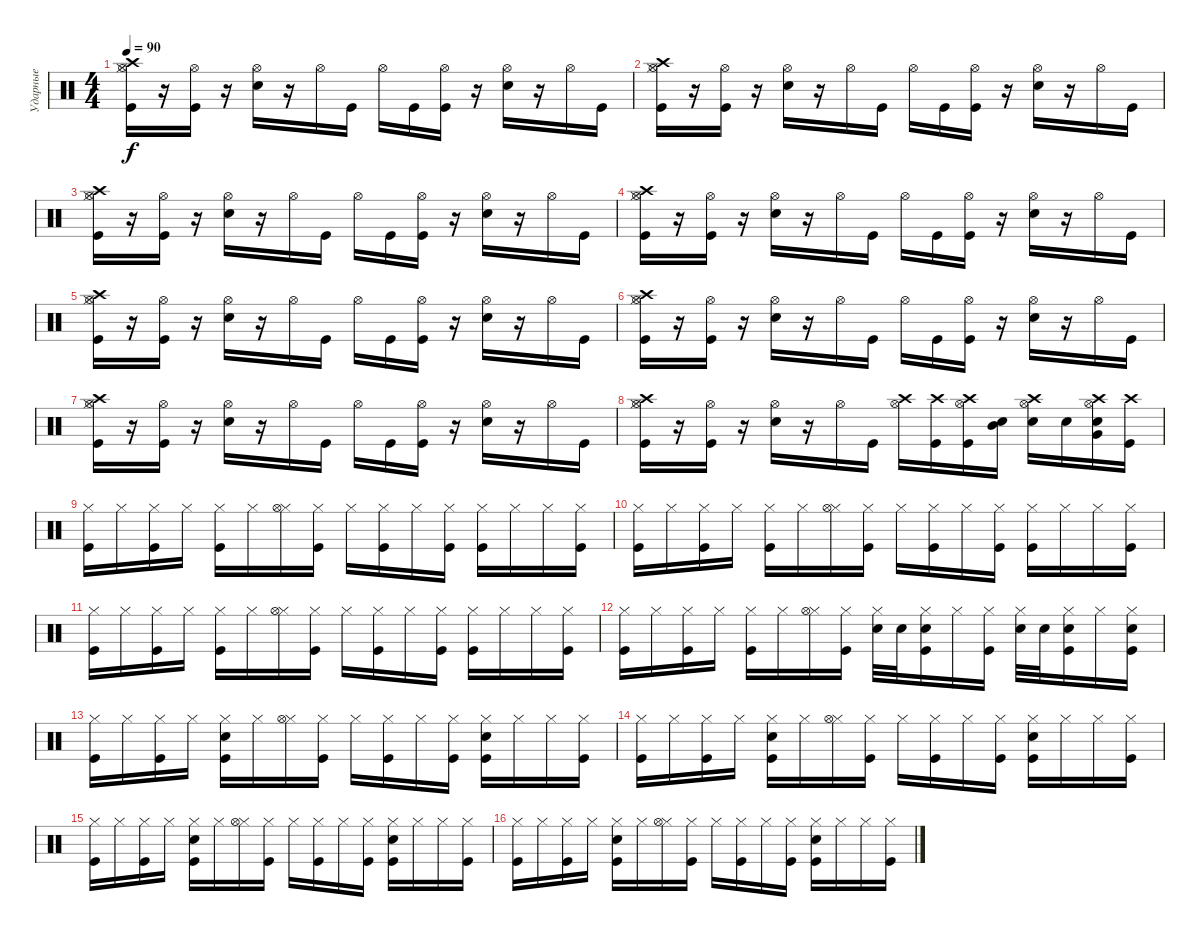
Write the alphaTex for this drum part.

\track ("Ударные" "Ударные") {instrument percussion}
\staff {score}
\articulation defaults
\ts (4 4)
\tempo 90
\clef neutral
\ks c
("Crash high (hit)" "Hi-Hat (closed)" "Hi-Hat (open)" "Kick (hit)").16{dy f} r.16 ("Kick (hit)" "Hi-Hat (open)").16 r.16 ("Snare (hit) 2" "Hi-Hat (open)").16 r.16 "Hi-Hat (open)".16 "Kick (hit)".16 "Hi-Hat (open)".16 "Kick (hit)".16 ("Kick (hit)" "Hi-Hat (open)").16 r.16 ("Snare (hit) 2" "Hi-Hat (open)").16 r.16 "Hi-Hat (open)".16 "Kick (hit)".16 |
("Crash high (hit)" "Hi-Hat (closed)" "Hi-Hat (open)" "Kick (hit)").16 r.16 ("Kick (hit)" "Hi-Hat (open)").16 r.16 ("Snare (hit) 2" "Hi-Hat (open)").16 r.16 "Hi-Hat (open)".16 "Kick (hit)".16 "Hi-Hat (open)".16 "Kick (hit)".16 ("Kick (hit)" "Hi-Hat (open)").16 r.16 ("Snare (hit) 2" "Hi-Hat (open)").16 r.16 "Hi-Hat (open)".16 "Kick (hit)".16 |
("Crash high (hit)" "Hi-Hat (closed)" "Hi-Hat (open)" "Kick (hit)").16 r.16 ("Kick (hit)" "Hi-Hat (open)").16 r.16 ("Snare (hit) 2" "Hi-Hat (open)").16 r.16 "Hi-Hat (open)".16 "Kick (hit)".16 "Hi-Hat (open)".16 "Kick (hit)".16 ("Kick (hit)" "Hi-Hat (open)").16 r.16 ("Snare (hit) 2" "Hi-Hat (open)").16 r.16 "Hi-Hat (open)".16 "Kick (hit)".16 |
("Crash high (hit)" "Hi-Hat (closed)" "Hi-Hat (open)" "Kick (hit)").16 r.16 ("Kick (hit)" "Hi-Hat (open)").16 r.16 ("Snare (hit) 2" "Hi-Hat (open)").16 r.16 "Hi-Hat (open)".16 "Kick (hit)".16 "Hi-Hat (open)".16 "Kick (hit)".16 ("Kick (hit)" "Hi-Hat (open)").16 r.16 ("Snare (hit) 2" "Hi-Hat (open)").16 r.16 "Hi-Hat (open)".16 "Kick (hit)".16 |
("Crash high (hit)" "Hi-Hat (closed)" "Hi-Hat (open)" "Kick (hit)").16 r.16 ("Kick (hit)" "Hi-Hat (open)").16 r.16 ("Snare (hit) 2" "Hi-Hat (open)").16 r.16 "Hi-Hat (open)".16 "Kick (hit)".16 "Hi-Hat (open)".16 "Kick (hit)".16 ("Kick (hit)" "Hi-Hat (open)").16 r.16 ("Snare (hit) 2" "Hi-Hat (open)").16 r.16 "Hi-Hat (open)".16 "Kick (hit)".16 |
("Crash high (hit)" "Hi-Hat (closed)" "Hi-Hat (open)" "Kick (hit)").16 r.16 ("Kick (hit)" "Hi-Hat (open)").16 r.16 ("Snare (hit) 2" "Hi-Hat (open)").16 r.16 "Hi-Hat (open)".16 "Kick (hit)".16 "Hi-Hat (open)".16 "Kick (hit)".16 ("Kick (hit)" "Hi-Hat (open)").16 r.16 ("Snare (hit) 2" "Hi-Hat (open)").16 r.16 "Hi-Hat (open)".16 "Kick (hit)".16 |
("Crash high (hit)" "Hi-Hat (closed)" "Hi-Hat (open)" "Kick (hit)").16 r.16 ("Kick (hit)" "Hi-Hat (open)").16 r.16 ("Snare (hit) 2" "Hi-Hat (open)").16 r.16 "Hi-Hat (open)".16 "Kick (hit)".16 "Hi-Hat (open)".16 "Kick (hit)".16 ("Kick (hit)" "Hi-Hat (open)").16 r.16 ("Snare (hit) 2" "Hi-Hat (open)").16 r.16 "Hi-Hat (open)".16 "Kick (hit)".16 |
("Crash high (hit)" "Hi-Hat (closed)" "Hi-Hat (open)" "Kick (hit)").16 r.16 ("Kick (hit)" "Hi-Hat (open)").16 r.16 ("Snare (hit) 2" "Hi-Hat (open)").16 r.16 "Hi-Hat (open)".16 "Kick (hit)".16 ("Crash high (hit)" "Hi-Hat (open)").16 ("Crash high (hit)" "Kick (hit)").16 ("Crash high (hit)" "Kick (hit)" "Hi-Hat (open)").16 ("Mid Tom (hit)" "Snare (hit) 2").16 ("Crash high (hit)" "Snare (hit) 2" "Hi-Hat (open)").16 "Snare (hit) 2".16 ("Crash high (hit)" "Hi-Hat (open)" "Snare (hit) 2" "Very Low Tom (hit)").16 ("Crash high (hit)" "Kick (hit)").16 |
("Hi-Hat (closed)" "Kick (hit)").16 "Hi-Hat (closed)".16 ("Hi-Hat (closed)" "Kick (hit)").16 "Hi-Hat (closed)".16 ("Hi-Hat (closed)" "Kick (hit)").16 "Hi-Hat (closed)".16 ("Hi-Hat (closed)" "Hi-Hat (open)").16 ("Hi-Hat (closed)" "Kick (hit)").16 "Hi-Hat (closed)".16 ("Hi-Hat (closed)" "Kick (hit)").16 "Hi-Hat (closed)".16 ("Hi-Hat (closed)" "Kick (hit)").16 ("Hi-Hat (closed)" "Kick (hit)").16 "Hi-Hat (closed)".16 "Hi-Hat (closed)".16 ("Hi-Hat (closed)" "Kick (hit)").16 |
("Hi-Hat (closed)" "Kick (hit)").16 "Hi-Hat (closed)".16 ("Hi-Hat (closed)" "Kick (hit)").16 "Hi-Hat (closed)".16 ("Hi-Hat (closed)" "Kick (hit)").16 "Hi-Hat (closed)".16 ("Hi-Hat (closed)" "Hi-Hat (open)").16 ("Hi-Hat (closed)" "Kick (hit)").16 "Hi-Hat (closed)".16 ("Hi-Hat (closed)" "Kick (hit)").16 "Hi-Hat (closed)".16 ("Hi-Hat (closed)" "Kick (hit)").16 ("Hi-Hat (closed)" "Kick (hit)").16 "Hi-Hat (closed)".16 "Hi-Hat (closed)".16 ("Hi-Hat (closed)" "Kick (hit)").16 |
("Hi-Hat (closed)" "Kick (hit)").16 "Hi-Hat (closed)".16 ("Hi-Hat (closed)" "Kick (hit)").16 "Hi-Hat (closed)".16 ("Hi-Hat (closed)" "Kick (hit)").16 "Hi-Hat (closed)".16 ("Hi-Hat (closed)" "Hi-Hat (open)").16 ("Hi-Hat (closed)" "Kick (hit)").16 "Hi-Hat (closed)".16 ("Hi-Hat (closed)" "Kick (hit)").16 "Hi-Hat (closed)".16 ("Hi-Hat (closed)" "Kick (hit)").16 ("Hi-Hat (closed)" "Kick (hit)").16 "Hi-Hat (closed)".16 "Hi-Hat (closed)".16 ("Hi-Hat (closed)" "Kick (hit)").16 |
("Hi-Hat (closed)" "Kick (hit)").16 "Hi-Hat (closed)".16 ("Hi-Hat (closed)" "Kick (hit)").16 "Hi-Hat (closed)".16 ("Hi-Hat (closed)" "Kick (hit)").16 "Hi-Hat (closed)".16 ("Hi-Hat (closed)" "Hi-Hat (open)").16 ("Hi-Hat (closed)" "Kick (hit)").16 ("Hi-Hat (closed)" "Snare (hit) 2").32 "Snare (hit) 2".32 ("Hi-Hat (closed)" "Kick (hit)" "Snare (hit) 2").16 "Hi-Hat (closed)".16 ("Hi-Hat (closed)" "Kick (hit)").16 ("Hi-Hat (closed)" "Snare (hit) 2").32 "Snare (hit) 2".32 ("Hi-Hat (closed)" "Kick (hit)" "Snare (hit) 2").16 "Hi-Hat (closed)".16 ("Hi-Hat (closed)" "Kick (hit)" "Snare (hit) 2").16 |
("Hi-Hat (closed)" "Kick (hit)").16 "Hi-Hat (closed)".16 ("Hi-Hat (closed)" "Kick (hit)").16 "Hi-Hat (closed)".16 ("Hi-Hat (closed)" "Kick (hit)" "Snare (hit) 2").16 "Hi-Hat (closed)".16 ("Hi-Hat (closed)" "Hi-Hat (open)").16 ("Hi-Hat (closed)" "Kick (hit)").16 "Hi-Hat (closed)".16 ("Hi-Hat (closed)" "Kick (hit)").16 "Hi-Hat (closed)".16 ("Hi-Hat (closed)" "Kick (hit)").16 ("Hi-Hat (closed)" "Kick (hit)" "Snare (hit) 2").16 "Hi-Hat (closed)".16 "Hi-Hat (closed)".16 ("Hi-Hat (closed)" "Kick (hit)").16 |
("Hi-Hat (closed)" "Kick (hit)").16 "Hi-Hat (closed)".16 ("Hi-Hat (closed)" "Kick (hit)").16 "Hi-Hat (closed)".16 ("Hi-Hat (closed)" "Kick (hit)" "Snare (hit) 2").16 "Hi-Hat (closed)".16 ("Hi-Hat (closed)" "Hi-Hat (open)").16 ("Hi-Hat (closed)" "Kick (hit)").16 "Hi-Hat (closed)".16 ("Hi-Hat (closed)" "Kick (hit)").16 "Hi-Hat (closed)".16 ("Hi-Hat (closed)" "Kick (hit)").16 ("Hi-Hat (closed)" "Kick (hit)" "Snare (hit) 2").16 "Hi-Hat (closed)".16 "Hi-Hat (closed)".16 ("Hi-Hat (closed)" "Kick (hit)").16 |
("Hi-Hat (closed)" "Kick (hit)").16 "Hi-Hat (closed)".16 ("Hi-Hat (closed)" "Kick (hit)").16 "Hi-Hat (closed)".16 ("Hi-Hat (closed)" "Kick (hit)" "Snare (hit) 2").16 "Hi-Hat (closed)".16 ("Hi-Hat (closed)" "Hi-Hat (open)").16 ("Hi-Hat (closed)" "Kick (hit)").16 "Hi-Hat (closed)".16 ("Hi-Hat (closed)" "Kick (hit)").16 "Hi-Hat (closed)".16 ("Hi-Hat (closed)" "Kick (hit)").16 ("Hi-Hat (closed)" "Kick (hit)" "Snare (hit) 2").16 "Hi-Hat (closed)".16 "Hi-Hat (closed)".16 ("Hi-Hat (closed)" "Kick (hit)").16 |
("Hi-Hat (closed)" "Kick (hit)").16 "Hi-Hat (closed)".16 ("Hi-Hat (closed)" "Kick (hit)").16 "Hi-Hat (closed)".16 ("Hi-Hat (closed)" "Kick (hit)" "Snare (hit) 2").16 "Hi-Hat (closed)".16 ("Hi-Hat (closed)" "Hi-Hat (open)").16 ("Hi-Hat (closed)" "Kick (hit)").16 "Hi-Hat (closed)".16 ("Hi-Hat (closed)" "Kick (hit)").16 "Hi-Hat (closed)".16 ("Hi-Hat (closed)" "Kick (hit)").16 ("Hi-Hat (closed)" "Kick (hit)" "Snare (hit) 2").16 "Hi-Hat (closed)".16 "Hi-Hat (closed)".16 ("Hi-Hat (closed)" "Kick (hit)").16
